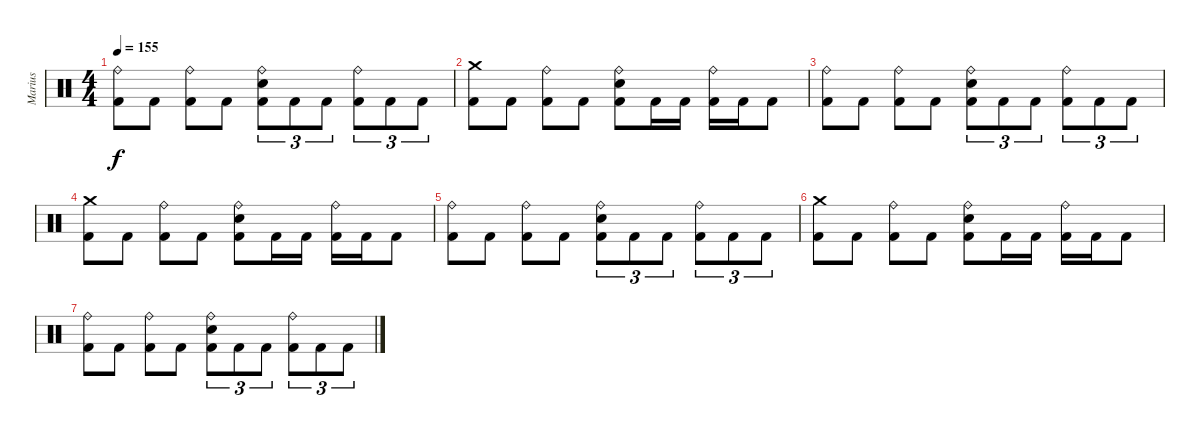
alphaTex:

\track ("Marius" "Marius") {instrument percussion}
\staff {score}
\articulation defaults
\ts (4 4)
\tempo 155
\clef neutral
\ks c
("Ride (bell)" "Kick (hit) 2").8{dy f} "Kick (hit) 2".8 ("Ride (bell)" "Kick (hit) 2").8 "Kick (hit) 2".8 ("Ride (bell)" "Snare (hit) 2" "Kick (hit) 2").8{tu (3 2)} "Kick (hit) 2".8{tu (3 2)} "Kick (hit) 2".8{tu (3 2)} ("Ride (bell)" "Kick (hit) 2").8{tu (3 2)} "Kick (hit) 2".8{tu (3 2)} "Kick (hit) 2".8{tu (3 2)} |
("Crash medium (hit)" "Kick (hit) 2").8 "Kick (hit) 2".8 ("Ride (bell)" "Kick (hit) 2").8 "Kick (hit) 2".8 ("Ride (bell)" "Snare (hit) 2" "Kick (hit) 2").8 "Kick (hit) 2".16 "Kick (hit) 2".16 ("Ride (bell)" "Kick (hit) 2").16 "Kick (hit) 2".16 "Kick (hit) 2".8 |
("Ride (bell)" "Kick (hit) 2").8 "Kick (hit) 2".8 ("Ride (bell)" "Kick (hit) 2").8 "Kick (hit) 2".8 ("Ride (bell)" "Snare (hit) 2" "Kick (hit) 2").8{tu (3 2)} "Kick (hit) 2".8{tu (3 2)} "Kick (hit) 2".8{tu (3 2)} ("Ride (bell)" "Kick (hit) 2").8{tu (3 2)} "Kick (hit) 2".8{tu (3 2)} "Kick (hit) 2".8{tu (3 2)} |
("Crash medium (hit)" "Kick (hit) 2").8 "Kick (hit) 2".8 ("Ride (bell)" "Kick (hit) 2").8 "Kick (hit) 2".8 ("Ride (bell)" "Snare (hit) 2" "Kick (hit) 2").8 "Kick (hit) 2".16 "Kick (hit) 2".16 ("Ride (bell)" "Kick (hit) 2").16 "Kick (hit) 2".16 "Kick (hit) 2".8 |
("Ride (bell)" "Kick (hit) 2").8 "Kick (hit) 2".8 ("Ride (bell)" "Kick (hit) 2").8 "Kick (hit) 2".8 ("Ride (bell)" "Snare (hit) 2" "Kick (hit) 2").8{tu (3 2)} "Kick (hit) 2".8{tu (3 2)} "Kick (hit) 2".8{tu (3 2)} ("Ride (bell)" "Kick (hit) 2").8{tu (3 2)} "Kick (hit) 2".8{tu (3 2)} "Kick (hit) 2".8{tu (3 2)} |
("Crash medium (hit)" "Kick (hit) 2").8 "Kick (hit) 2".8 ("Ride (bell)" "Kick (hit) 2").8 "Kick (hit) 2".8 ("Ride (bell)" "Snare (hit) 2" "Kick (hit) 2").8 "Kick (hit) 2".16 "Kick (hit) 2".16 ("Ride (bell)" "Kick (hit) 2").16 "Kick (hit) 2".16 "Kick (hit) 2".8 |
("Ride (bell)" "Kick (hit) 2").8 "Kick (hit) 2".8 ("Ride (bell)" "Kick (hit) 2").8 "Kick (hit) 2".8 ("Ride (bell)" "Snare (hit) 2" "Kick (hit) 2").8{tu (3 2)} "Kick (hit) 2".8{tu (3 2)} "Kick (hit) 2".8{tu (3 2)} ("Ride (bell)" "Kick (hit) 2").8{tu (3 2)} "Kick (hit) 2".8{tu (3 2)} "Kick (hit) 2".8{tu (3 2)}
